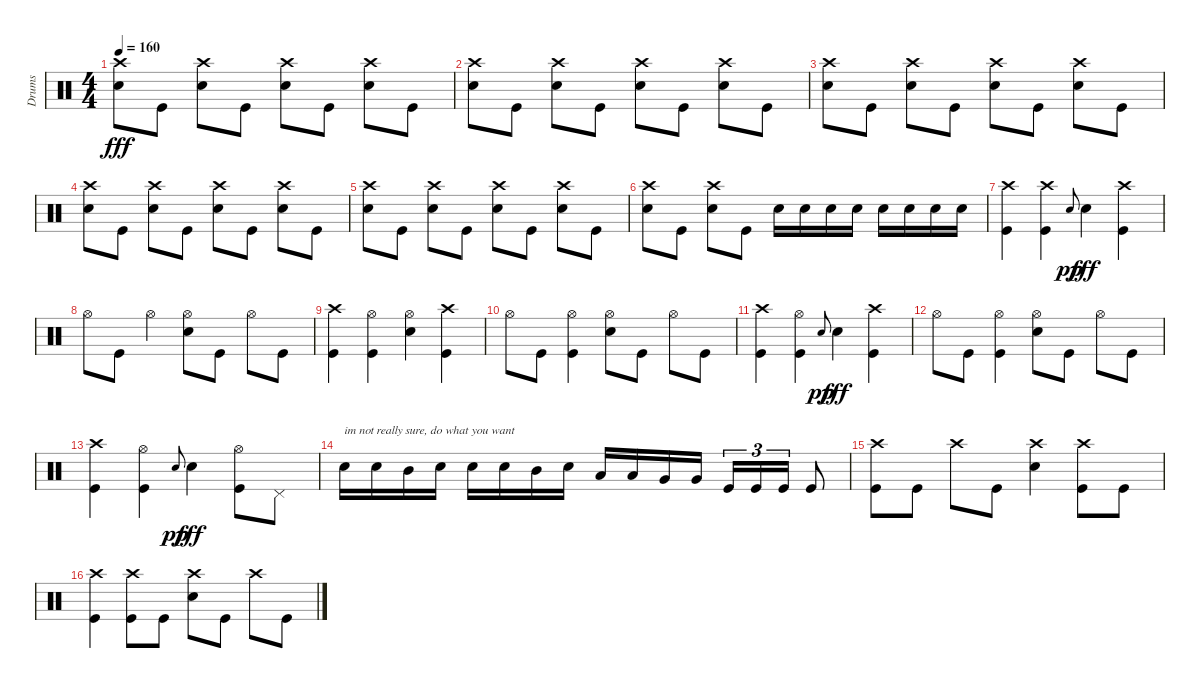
\track ("Drums" "Drums") {instrument percussion}
\staff {score}
\articulation defaults
\ts (4 4)
\tempo 160
\clef neutral
\ks c
("Crash high (hit)" "Snare (hit) 2").8{dy fff} "Kick (hit)".8 ("Crash high (hit)" "Snare (hit) 2").8 "Kick (hit)".8 ("Crash high (hit)" "Snare (hit) 2").8 "Kick (hit)".8 ("Crash high (hit)" "Snare (hit) 2").8 "Kick (hit)".8 |
("Crash high (hit)" "Snare (hit) 2").8 "Kick (hit)".8 ("Crash high (hit)" "Snare (hit) 2").8 "Kick (hit)".8 ("Crash high (hit)" "Snare (hit) 2").8 "Kick (hit)".8 ("Crash high (hit)" "Snare (hit) 2").8 "Kick (hit)".8 |
("Crash high (hit)" "Snare (hit) 2").8 "Kick (hit)".8 ("Crash high (hit)" "Snare (hit) 2").8 "Kick (hit)".8 ("Crash high (hit)" "Snare (hit) 2").8 "Kick (hit)".8 ("Crash high (hit)" "Snare (hit) 2").8 "Kick (hit)".8 |
("Crash high (hit)" "Snare (hit) 2").8 "Kick (hit)".8 ("Crash high (hit)" "Snare (hit) 2").8 "Kick (hit)".8 ("Crash high (hit)" "Snare (hit) 2").8 "Kick (hit)".8 ("Crash high (hit)" "Snare (hit) 2").8 "Kick (hit)".8 |
("Crash high (hit)" "Snare (hit) 2").8 "Kick (hit)".8 ("Crash high (hit)" "Snare (hit) 2").8 "Kick (hit)".8 ("Crash high (hit)" "Snare (hit) 2").8 "Kick (hit)".8 ("Crash high (hit)" "Snare (hit) 2").8 "Kick (hit)".8 |
("Crash high (hit)" "Snare (hit) 2").8 "Kick (hit)".8 ("Crash high (hit)" "Snare (hit) 2").8 "Kick (hit)".8 "Snare (hit) 2".16 "Snare (hit) 2".16 "Snare (hit) 2".16 "Snare (hit) 2".16 "Snare (hit) 2".16 "Snare (hit) 2".16 "Snare (hit) 2".16 "Snare (hit) 2".16 |
("Crash high (hit)" "Kick (hit)").4 ("Crash high (hit)" "Kick (hit)").4 "Snare (hit) 2".8{gr onbeat dy pp} "Snare (hit) 2".4{dy fff} ("Crash high (hit)" "Kick (hit)").4 |
"Hi-Hat (open)".8 "Kick (hit)".8 "Hi-Hat (open)".4 ("Hi-Hat (open)" "Snare (hit) 2").8 "Kick (hit)".8 "Hi-Hat (open)".8 "Kick (hit)".8 |
("Crash high (hit)" "Kick (hit)").4 ("Hi-Hat (open)" "Kick (hit)").4 ("Hi-Hat (open)" "Snare (hit) 2").4 ("Crash high (hit)" "Kick (hit)").4 |
"Hi-Hat (open)".8 "Kick (hit)".8 ("Hi-Hat (open)" "Kick (hit)").4 ("Hi-Hat (open)" "Snare (hit) 2").8 "Kick (hit)".8 "Hi-Hat (open)".8 "Kick (hit)".8 |
("Crash high (hit)" "Kick (hit)").4 ("Hi-Hat (open)" "Kick (hit)").4 "Snare (hit) 2".8{gr onbeat dy pp} "Snare (hit) 2".4{dy fff} ("Crash high (hit)" "Kick (hit)").4 |
"Hi-Hat (open)".8 "Kick (hit)".8 ("Hi-Hat (open)" "Kick (hit)").4 ("Hi-Hat (open)" "Snare (hit) 2").8 "Kick (hit)".8 "Hi-Hat (open)".8 "Kick (hit)".8 |
("Crash high (hit)" "Kick (hit)").4 ("Hi-Hat (open)" "Kick (hit)").4 "Snare (hit) 2".8{gr onbeat dy pp} "Snare (hit) 2".4{dy fff} ("Hi-Hat (open)" "Kick (hit)").8 "Pedal Hi-Hat (hit)".8 |
"Snare (hit) 2".16{txt "im not really sure, do what you want"} "Snare (hit) 2".16 "Mid Tom (hit)".16 "Snare (hit) 2".16 "Snare (hit) 2".16 "Snare (hit) 2".16 "Mid Tom (hit)".16 "Snare (hit) 2".16 "Low Tom (hit)".16 "Low Tom (hit)".16 "Very Low Tom (hit)".16 "Very Low Tom (hit)".16 "Kick (hit)".16{tu (3 2)} "Kick (hit)".16{tu (3 2)} "Kick (hit)".16{tu (3 2)} "Kick (hit)".8 |
("Crash high (hit)" "Kick (hit)").8 "Kick (hit)".8 "Crash high (hit)".8 "Kick (hit)".8 ("Crash high (hit)" "Snare (hit) 2").4 ("Crash high (hit)" "Kick (hit)").8 "Kick (hit)".8 |
("Crash high (hit)" "Kick (hit)").4 ("Crash high (hit)" "Kick (hit)").8 "Kick (hit)".8 ("Crash high (hit)" "Snare (hit) 2").8 "Kick (hit)".8 "Crash high (hit)".8 "Kick (hit)".8
